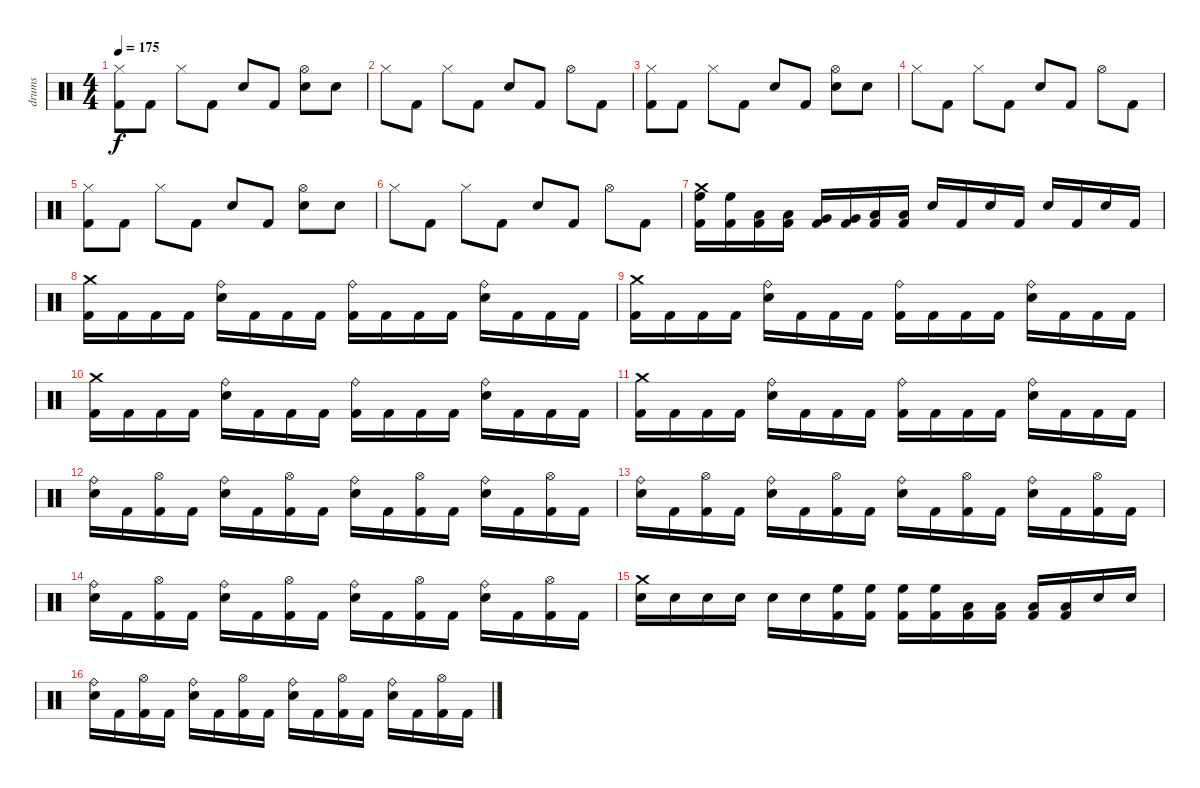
\track ("drums" "drums") {instrument percussion}
\staff {score}
\articulation defaults
\ts (4 4)
\tempo 175
\clef neutral
\ks c
("Hi-Hat (closed)" "Kick (hit) 2").8{dy f} "Kick (hit) 2".8 "Hi-Hat (closed)".8 "Kick (hit) 2".8 "Snare (hit) 2".8 "Kick (hit) 2".8 ("Hi-Hat (open)" "Snare (hit) 2").8 "Snare (hit) 2".8 |
"Hi-Hat (closed)".8 "Kick (hit) 2".8 "Hi-Hat (closed)".8 "Kick (hit) 2".8 "Snare (hit) 2".8 "Kick (hit) 2".8 "Hi-Hat (open)".8 "Kick (hit) 2".8 |
("Hi-Hat (closed)" "Kick (hit) 2").8 "Kick (hit) 2".8 "Hi-Hat (closed)".8 "Kick (hit) 2".8 "Snare (hit) 2".8 "Kick (hit) 2".8 ("Hi-Hat (open)" "Snare (hit) 2").8 "Snare (hit) 2".8 |
"Hi-Hat (closed)".8 "Kick (hit) 2".8 "Hi-Hat (closed)".8 "Kick (hit) 2".8 "Snare (hit) 2".8 "Kick (hit) 2".8 "Hi-Hat (open)".8 "Kick (hit) 2".8 |
("Hi-Hat (closed)" "Kick (hit) 2").8 "Kick (hit) 2".8 "Hi-Hat (closed)".8 "Kick (hit) 2".8 "Snare (hit) 2".8 "Kick (hit) 2".8 ("Hi-Hat (open)" "Snare (hit) 2").8 "Snare (hit) 2".8 |
"Hi-Hat (closed)".8 "Kick (hit) 2".8 "Hi-Hat (closed)".8 "Kick (hit) 2".8 "Snare (hit) 2".8 "Kick (hit) 2".8 "Hi-Hat (open)".8 "Kick (hit) 2".8 |
("Crash medium (hit)" "High Floor Tom (hit)" "Kick (hit) 2").16 ("High Floor Tom (hit)" "Kick (hit) 2").16 ("Low Tom (hit)" "Kick (hit) 2").16 ("Low Tom (hit)" "Kick (hit) 2").16 ("Very Low Tom (hit)" "Kick (hit) 2").16 ("Very Low Tom (hit)" "Kick (hit) 2").16 ("Low Tom (hit)" "Kick (hit) 2").16 ("Low Tom (hit)" "Kick (hit) 2").16 "Snare (hit) 2".16 "Kick (hit) 2".16 "Snare (hit) 2".16 "Kick (hit) 2".16 "Snare (hit) 2".16 "Kick (hit) 2".16 "Snare (hit) 2".16 "Kick (hit) 2".16 |
("Crash medium (hit)" "Kick (hit) 2").16 "Kick (hit) 2".16 "Kick (hit) 2".16 "Kick (hit) 2".16 ("Ride (bell)" "Snare (hit) 2").16 "Kick (hit) 2".16 "Kick (hit) 2".16 "Kick (hit) 2".16 ("Ride (bell)" "Kick (hit) 2").16 "Kick (hit) 2".16 "Kick (hit) 2".16 "Kick (hit) 2".16 ("Ride (bell)" "Snare (hit) 2").16 "Kick (hit) 2".16 "Kick (hit) 2".16 "Kick (hit) 2".16 |
("Crash medium (hit)" "Kick (hit) 2").16 "Kick (hit) 2".16 "Kick (hit) 2".16 "Kick (hit) 2".16 ("Ride (bell)" "Snare (hit) 2").16 "Kick (hit) 2".16 "Kick (hit) 2".16 "Kick (hit) 2".16 ("Ride (bell)" "Kick (hit) 2").16 "Kick (hit) 2".16 "Kick (hit) 2".16 "Kick (hit) 2".16 ("Ride (bell)" "Snare (hit) 2").16 "Kick (hit) 2".16 "Kick (hit) 2".16 "Kick (hit) 2".16 |
("Crash medium (hit)" "Kick (hit) 2").16 "Kick (hit) 2".16 "Kick (hit) 2".16 "Kick (hit) 2".16 ("Ride (bell)" "Snare (hit) 2").16 "Kick (hit) 2".16 "Kick (hit) 2".16 "Kick (hit) 2".16 ("Ride (bell)" "Kick (hit) 2").16 "Kick (hit) 2".16 "Kick (hit) 2".16 "Kick (hit) 2".16 ("Ride (bell)" "Snare (hit) 2").16 "Kick (hit) 2".16 "Kick (hit) 2".16 "Kick (hit) 2".16 |
("Crash medium (hit)" "Kick (hit) 2").16 "Kick (hit) 2".16 "Kick (hit) 2".16 "Kick (hit) 2".16 ("Ride (bell)" "Snare (hit) 2").16 "Kick (hit) 2".16 "Kick (hit) 2".16 "Kick (hit) 2".16 ("Ride (bell)" "Kick (hit) 2").16 "Kick (hit) 2".16 "Kick (hit) 2".16 "Kick (hit) 2".16 ("Ride (bell)" "Snare (hit) 2").16 "Kick (hit) 2".16 "Kick (hit) 2".16 "Kick (hit) 2".16 |
("Ride (bell)" "Snare (hit) 2").16 "Kick (hit) 2".16 ("Hi-Hat (open)" "Kick (hit) 2").16 "Kick (hit) 2".16 ("Ride (bell)" "Snare (hit) 2").16 "Kick (hit) 2".16 ("Hi-Hat (open)" "Kick (hit) 2").16 "Kick (hit) 2".16 ("Ride (bell)" "Snare (hit) 2").16 "Kick (hit) 2".16 ("Hi-Hat (open)" "Kick (hit) 2").16 "Kick (hit) 2".16 ("Ride (bell)" "Snare (hit) 2").16 "Kick (hit) 2".16 ("Hi-Hat (open)" "Kick (hit) 2").16 "Kick (hit) 2".16 |
("Ride (bell)" "Snare (hit) 2").16 "Kick (hit) 2".16 ("Hi-Hat (open)" "Kick (hit) 2").16 "Kick (hit) 2".16 ("Ride (bell)" "Snare (hit) 2").16 "Kick (hit) 2".16 ("Hi-Hat (open)" "Kick (hit) 2").16 "Kick (hit) 2".16 ("Ride (bell)" "Snare (hit) 2").16 "Kick (hit) 2".16 ("Hi-Hat (open)" "Kick (hit) 2").16 "Kick (hit) 2".16 ("Ride (bell)" "Snare (hit) 2").16 "Kick (hit) 2".16 ("Hi-Hat (open)" "Kick (hit) 2").16 "Kick (hit) 2".16 |
("Ride (bell)" "Snare (hit) 2").16 "Kick (hit) 2".16 ("Hi-Hat (open)" "Kick (hit) 2").16 "Kick (hit) 2".16 ("Ride (bell)" "Snare (hit) 2").16 "Kick (hit) 2".16 ("Hi-Hat (open)" "Kick (hit) 2").16 "Kick (hit) 2".16 ("Ride (bell)" "Snare (hit) 2").16 "Kick (hit) 2".16 ("Hi-Hat (open)" "Kick (hit) 2").16 "Kick (hit) 2".16 ("Ride (bell)" "Snare (hit) 2").16 "Kick (hit) 2".16 ("Hi-Hat (open)" "Kick (hit) 2").16 "Kick (hit) 2".16 |
("Crash medium (hit)" "Snare (hit) 2").16 "Snare (hit) 2".16 "Snare (hit) 2".16 "Snare (hit) 2".16 "Snare (hit) 2".16 "Snare (hit) 2".16 ("High Floor Tom (hit)" "Kick (hit) 2").16 ("High Floor Tom (hit)" "Kick (hit) 2").16 ("High Floor Tom (hit)" "Kick (hit) 2").16 ("High Floor Tom (hit)" "Kick (hit) 2").16 ("Low Tom (hit)" "Kick (hit) 2").16 ("Low Tom (hit)" "Kick (hit) 2").16 ("Low Tom (hit)" "Kick (hit) 2").16 ("Low Tom (hit)" "Kick (hit) 2").16 "Snare (hit) 2".16 "Snare (hit) 2".16 |
("Ride (bell)" "Snare (hit) 2").16 "Kick (hit) 2".16 ("Hi-Hat (open)" "Kick (hit) 2").16 "Kick (hit) 2".16 ("Ride (bell)" "Snare (hit) 2").16 "Kick (hit) 2".16 ("Hi-Hat (open)" "Kick (hit) 2").16 "Kick (hit) 2".16 ("Ride (bell)" "Snare (hit) 2").16 "Kick (hit) 2".16 ("Hi-Hat (open)" "Kick (hit) 2").16 "Kick (hit) 2".16 ("Ride (bell)" "Snare (hit) 2").16 "Kick (hit) 2".16 ("Hi-Hat (open)" "Kick (hit) 2").16 "Kick (hit) 2".16
